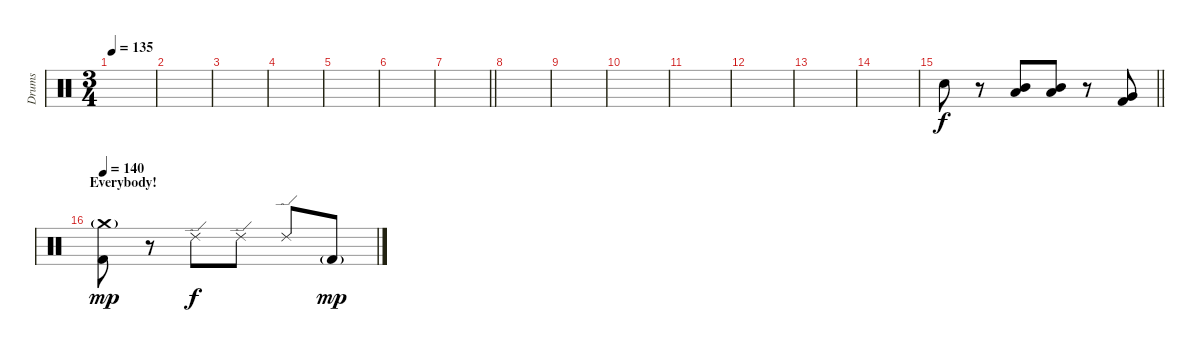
\track ("Drums" "Drums") {instrument percussion}
\staff {score}
\articulation defaults
\ts (3 4)
\tempo 135
\clef neutral
\ks c
|
|
|
|
|
|
\barLineRight lightlight
|
|
|
|
|
|
|
|
\barLineRight lightlight "Electric Snare (hit)".8
r.8 ("Mid Tom (hit)" "Low Tom (hit)").8 ("Mid Tom (hit)" "Low Tom (hit)").8 r.8 ("Very Low Tom (hit)" "Kick (hit) 2").8 |
\section ("" "Everybody!")
\tempo 140
("Crash medium (hit)"{g} "Kick (hit) 2").8{dy mp} r.8 "Ride (edge) 2".8{dy f} "Ride (edge) 2".8 "Ride (edge) 2".8 "Kick (hit) 2"{g}.8{dy mp}
